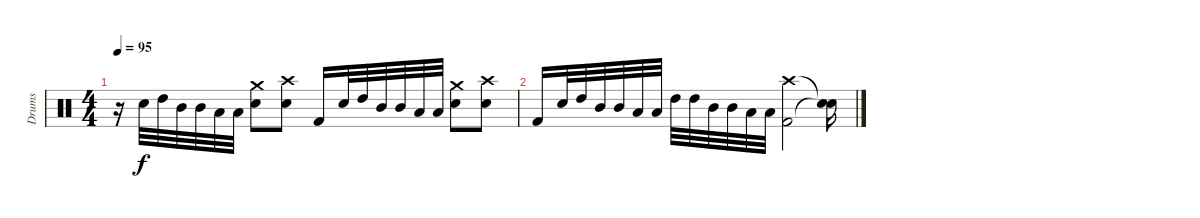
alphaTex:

\track ("Drums" "Drums") {instrument percussion}
\staff {score}
\articulation defaults
\ts (4 4)
\tempo 95
\clef neutral
\ks c
r.16{dy f} "Snare (hit) 2".32 "High Tom (hit)".32 "Mid Tom (hit)".32 "Mid Tom (hit)".32 "Low Tom (hit)".32 "Low Tom (hit)".32 ("Crash medium (hit)" "Snare (hit) 2").8 ("Crash high (hit)" "Snare (hit) 2").8 "Kick (hit) 2".16 "Snare (hit) 2".32 "High Tom (hit)".32 "Mid Tom (hit)".32 "Mid Tom (hit)".32 "Low Tom (hit)".32 "Low Tom (hit)".32 ("Crash medium (hit)" "Snare (hit) 2").8 ("Crash high (hit)" "Snare (hit) 2").8 |
"Kick (hit) 2".16 "Snare (hit) 2".32 "High Tom (hit)".32 "Mid Tom (hit)".32 "Mid Tom (hit)".32 "Low Tom (hit)".32 "Low Tom (hit)".32 "High Tom (hit)".32 "High Tom (hit)".32 "Mid Tom (hit)".32 "Mid Tom (hit)".32 "Low Tom (hit)".32 "Low Tom (hit)".32 ("Crash high (hit)" "Kick (hit) 2").2 ("Snare (hit)"{t} "Snare (hit)"{t}).16
